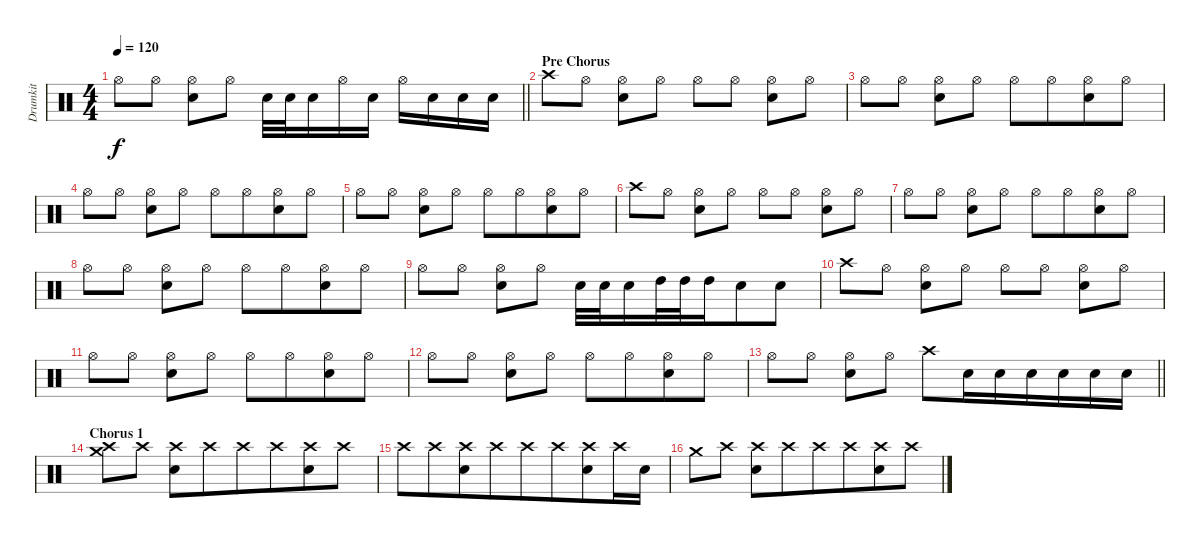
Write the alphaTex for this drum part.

\track ("Drumkit" "Drumkit") {instrument percussion bank 2}
\staff {score}
\articulation defaults
\ts (4 4)
\tempo 120
\clef neutral
\barLineRight lightlight
\ks c "Hi-Hat (open)".8{dy f} "Hi-Hat (open)".8
("Hi-Hat (open)" "Electric Snare (hit)").8 "Hi-Hat (open)".8 "Electric Snare (hit)".32 "Electric Snare (hit)".32{beam merge} "Electric Snare (hit)".16{beam merge} "Hi-Hat (open)".16{beam merge} "Electric Snare (hit)".16 "Hi-Hat (open)".16{beam merge} "Electric Snare (hit)".16 "Electric Snare (hit)".16{beam merge} "Electric Snare (hit)".16 |
\section ("" "Pre Chorus")
"Crash high (hit)".8{beam merge} "Hi-Hat (open)".8 ("Hi-Hat (open)" "Electric Snare (hit)").8 "Hi-Hat (open)".8 "Hi-Hat (open)".8{beam merge} "Hi-Hat (open)".8 ("Hi-Hat (open)" "Electric Snare (hit)").8{beam merge} "Hi-Hat (open)".8 |
"Hi-Hat (open)".8 "Hi-Hat (open)".8 ("Hi-Hat (open)" "Electric Snare (hit)").8 "Hi-Hat (open)".8 "Hi-Hat (open)".8 "Hi-Hat (open)".8{beam merge} ("Hi-Hat (open)" "Electric Snare (hit)").8{beam merge} "Hi-Hat (open)".8 |
"Hi-Hat (open)".8 "Hi-Hat (open)".8 ("Hi-Hat (open)" "Electric Snare (hit)").8 "Hi-Hat (open)".8 "Hi-Hat (open)".8 "Hi-Hat (open)".8{beam merge} ("Hi-Hat (open)" "Electric Snare (hit)").8{beam merge} "Hi-Hat (open)".8 |
"Hi-Hat (open)".8 "Hi-Hat (open)".8 ("Hi-Hat (open)" "Electric Snare (hit)").8 "Hi-Hat (open)".8 "Hi-Hat (open)".8 "Hi-Hat (open)".8{beam merge} ("Hi-Hat (open)" "Electric Snare (hit)").8{beam merge} "Hi-Hat (open)".8 |
"Crash high (hit)".8{beam merge} "Hi-Hat (open)".8 ("Hi-Hat (open)" "Electric Snare (hit)").8 "Hi-Hat (open)".8 "Hi-Hat (open)".8{beam merge} "Hi-Hat (open)".8 ("Hi-Hat (open)" "Electric Snare (hit)").8{beam merge} "Hi-Hat (open)".8 |
"Hi-Hat (open)".8 "Hi-Hat (open)".8 ("Hi-Hat (open)" "Electric Snare (hit)").8 "Hi-Hat (open)".8 "Hi-Hat (open)".8 "Hi-Hat (open)".8{beam merge} ("Hi-Hat (open)" "Electric Snare (hit)").8{beam merge} "Hi-Hat (open)".8 |
"Hi-Hat (open)".8 "Hi-Hat (open)".8 ("Hi-Hat (open)" "Electric Snare (hit)").8 "Hi-Hat (open)".8 "Hi-Hat (open)".8 "Hi-Hat (open)".8{beam merge} ("Hi-Hat (open)" "Electric Snare (hit)").8{beam merge} "Hi-Hat (open)".8 |
"Hi-Hat (open)".8 "Hi-Hat (open)".8 ("Hi-Hat (open)" "Electric Snare (hit)").8 "Hi-Hat (open)".8 "Electric Snare (hit)".32 "Electric Snare (hit)".32{beam merge} "Electric Snare (hit)".16{beam merge} "High Tom (hit)".32 "High Tom (hit)".32{beam merge} "High Tom (hit)".16{beam merge} "Electric Snare (hit)".8{beam merge} "Electric Snare (hit)".8 |
"Crash high (hit)".8{beam merge} "Hi-Hat (open)".8 ("Hi-Hat (open)" "Electric Snare (hit)").8 "Hi-Hat (open)".8 "Hi-Hat (open)".8{beam merge} "Hi-Hat (open)".8 ("Hi-Hat (open)" "Electric Snare (hit)").8{beam merge} "Hi-Hat (open)".8 |
"Hi-Hat (open)".8 "Hi-Hat (open)".8 ("Hi-Hat (open)" "Electric Snare (hit)").8 "Hi-Hat (open)".8 "Hi-Hat (open)".8 "Hi-Hat (open)".8{beam merge} ("Hi-Hat (open)" "Electric Snare (hit)").8{beam merge} "Hi-Hat (open)".8 |
"Hi-Hat (open)".8 "Hi-Hat (open)".8 ("Hi-Hat (open)" "Electric Snare (hit)").8 "Hi-Hat (open)".8 "Hi-Hat (open)".8 "Hi-Hat (open)".8{beam merge} ("Hi-Hat (open)" "Electric Snare (hit)").8{beam merge} "Hi-Hat (open)".8 |
\barLineRight lightlight "Hi-Hat (open)".8 "Hi-Hat (open)".8
("Hi-Hat (open)" "Electric Snare (hit)").8 "Hi-Hat (open)".8 "Crash high (hit)".8 "Electric Snare (hit)".16{beam merge} "Electric Snare (hit)".16{beam merge} "Electric Snare (hit)".16 "Electric Snare (hit)".16 "Electric Snare (hit)".16 "Electric Snare (hit)".16 |
\section ("" "Chorus 1")
("Crash medium (hit)" "Crash high (hit)").8{beam merge} "Crash high (hit)".8 ("Crash high (hit)" "Electric Snare (hit)").8{beam merge} "Crash high (hit)".8{beam merge} "Crash high (hit)".8 "Crash high (hit)".8{beam merge} ("Crash high (hit)" "Electric Snare (hit)").8{beam merge} "Crash high (hit)".8 |
"Crash high (hit)".8 "Crash high (hit)".8{beam merge} ("Crash high (hit)" "Electric Snare (hit)").8 "Crash high (hit)".8{beam merge} "Crash high (hit)".8{beam merge} "Crash high (hit)".8{beam merge} ("Crash high (hit)" "Electric Snare (hit)").8 "Crash high (hit)".16{beam merge} "Electric Snare (hit)".16 |
"Crash medium (hit)".8 "Crash high (hit)".8 ("Crash high (hit)" "Electric Snare (hit)").8 "Crash high (hit)".8{beam merge} "Crash high (hit)".8 "Crash high (hit)".8{beam merge} ("Crash high (hit)" "Electric Snare (hit)").8 "Crash high (hit)".8
